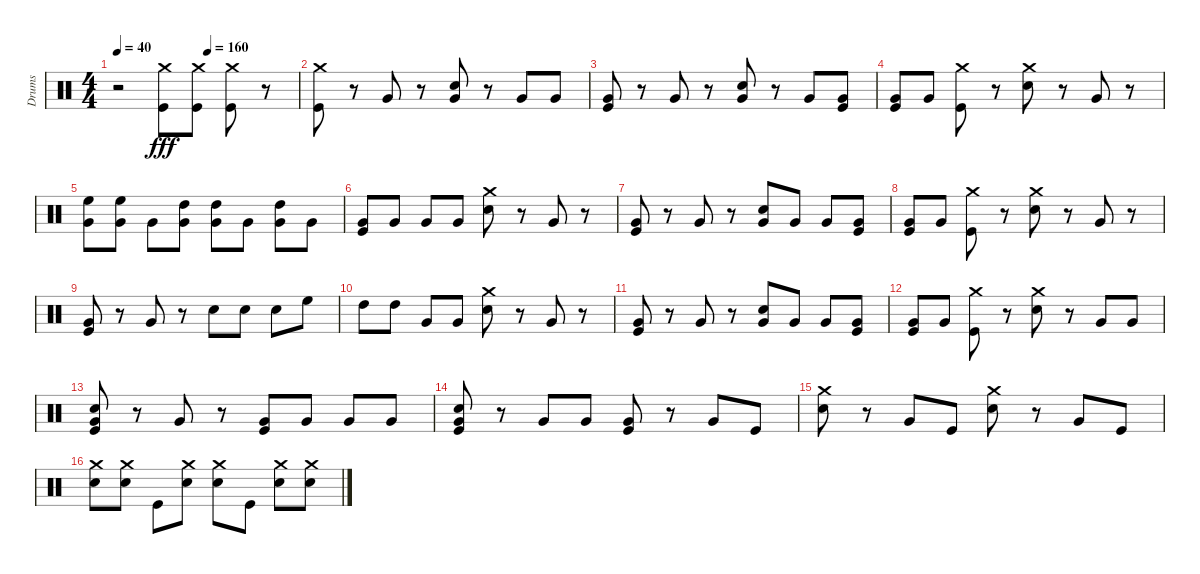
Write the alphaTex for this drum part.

\track ("Drums" "Drums") {instrument percussion}
\staff {score}
\articulation defaults
\ts (4 4)
\tempo 40
\tempo (160 0.5)
\clef neutral
\ks c
r.2{dy fff} ("Crash medium (hit)" "Kick (hit)").8 ("Crash medium (hit)" "Kick (hit)").8 ("Crash medium (hit)" "Kick (hit)").8 r.8 |
("Crash medium (hit)" "Kick (hit)").8 r.8 "Very Low Tom (hit)".8 r.8 ("Snare (hit) 2" "Very Low Tom (hit)").8 r.8 "Very Low Tom (hit)".8 "Very Low Tom (hit)".8 |
("Very Low Tom (hit)" "Kick (hit)").8 r.8 "Very Low Tom (hit)".8 r.8 ("Snare (hit) 2" "Very Low Tom (hit)").8 r.8 "Very Low Tom (hit)".8 ("Kick (hit)" "Very Low Tom (hit)").8 |
("Very Low Tom (hit)" "Kick (hit)").8 "Very Low Tom (hit)".8 ("Crash medium (hit)" "Kick (hit)").8 r.8 ("Crash medium (hit)" "Snare (hit) 2").8 r.8 "Very Low Tom (hit)".8 r.8 |
("High Floor Tom (hit)" "Very Low Tom (hit)").8 ("High Floor Tom (hit)" "Very Low Tom (hit)").8 "Very Low Tom (hit)".8 ("Very Low Tom (hit)" "High Tom (hit)").8 ("Very Low Tom (hit)" "High Tom (hit)").8 "Very Low Tom (hit)".8 ("Very Low Tom (hit)" "High Tom (hit)").8 "Very Low Tom (hit)".8 |
("Kick (hit)" "Very Low Tom (hit)").8 "Very Low Tom (hit)".8 "Very Low Tom (hit)".8 "Very Low Tom (hit)".8 ("Crash medium (hit)" "Snare (hit) 2").8 r.8 "Very Low Tom (hit)".8 r.8 |
("Kick (hit)" "Very Low Tom (hit)").8 r.8 "Very Low Tom (hit)".8 r.8 ("Very Low Tom (hit)" "Snare (hit) 2").8 "Very Low Tom (hit)".8 "Very Low Tom (hit)".8 ("Kick (hit)" "Very Low Tom (hit)").8 |
("Very Low Tom (hit)" "Kick (hit)").8 "Very Low Tom (hit)".8 ("Crash medium (hit)" "Kick (hit)").8 r.8 ("Snare (hit) 2" "Crash medium (hit)").8 r.8 "Very Low Tom (hit)".8 r.8 |
("Kick (hit)" "Very Low Tom (hit)").8 r.8 "Very Low Tom (hit)".8 r.8 "Snare (hit) 2".8 "Snare (hit) 2".8 "Snare (hit) 2".8 "High Floor Tom (hit)".8 |
"High Tom (hit)".8 "High Tom (hit)".8 "Very Low Tom (hit)".8 "Very Low Tom (hit)".8 ("Crash medium (hit)" "Snare (hit) 2").8 r.8 "Very Low Tom (hit)".8 r.8 |
("Kick (hit)" "Very Low Tom (hit)").8 r.8 "Very Low Tom (hit)".8 r.8 ("Very Low Tom (hit)" "Snare (hit) 2").8 "Very Low Tom (hit)".8 "Very Low Tom (hit)".8 ("Kick (hit)" "Very Low Tom (hit)").8 |
("Very Low Tom (hit)" "Kick (hit)").8 "Very Low Tom (hit)".8 ("Crash medium (hit)" "Kick (hit)").8 r.8 ("Snare (hit) 2" "Crash medium (hit)").8 r.8 "Very Low Tom (hit)".8 "Very Low Tom (hit)".8 |
("Kick (hit)" "Very Low Tom (hit)" "Snare (hit) 2").8 r.8 "Very Low Tom (hit)".8 r.8 ("Very Low Tom (hit)" "Kick (hit)").8 "Very Low Tom (hit)".8 "Very Low Tom (hit)".8 "Very Low Tom (hit)".8 |
("Kick (hit)" "Snare (hit) 2" "Very Low Tom (hit)").8 r.8 "Very Low Tom (hit)".8 "Very Low Tom (hit)".8 ("Very Low Tom (hit)" "Kick (hit)").8 r.8 "Very Low Tom (hit)".8 "Kick (hit)".8 |
("Crash medium (hit)" "Snare (hit) 2").8 r.8 "Very Low Tom (hit)".8 "Kick (hit)".8 ("Crash medium (hit)" "Snare (hit) 2").8 r.8 "Very Low Tom (hit)".8 "Kick (hit)".8 |
("Crash medium (hit)" "Snare (hit) 2").8 ("Crash medium (hit)" "Snare (hit) 2").8 "Kick (hit)".8 ("Crash medium (hit)" "Snare (hit) 2").8 ("Crash medium (hit)" "Snare (hit) 2").8 "Kick (hit)".8 ("Crash medium (hit)" "Snare (hit) 2").8 ("Crash medium (hit)" "Snare (hit) 2").8
